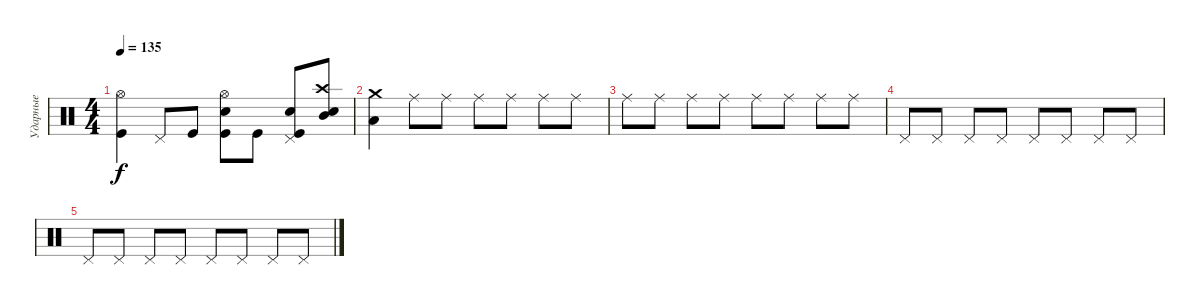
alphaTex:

\track ("Ударные" "Ударные") {instrument percussion}
\staff {score}
\articulation defaults
\ts (4 4)
\tempo 135
\clef neutral
\ks c
("Hi-Hat (open)" "Kick (hit)").4{dy f} "Pedal Hi-Hat (hit)".8 "Kick (hit)".8 ("Hi-Hat (open)" "Electric Snare (hit)" "Kick (hit)").8 "Kick (hit)".8 ("Pedal Hi-Hat (hit)" "Electric Snare (hit)" "Kick (hit)").8 ("Crash high (hit)" "Mid Tom (hit)" "Electric Snare (hit)").8 |
("Crash medium (hit)" "Low Tom (hit)").4 "Ride (middle)".8 "Ride (middle)".8 "Ride (middle)".8 "Ride (middle)".8 "Ride (middle)".8 "Ride (middle)".8 |
"Ride (middle)".8 "Ride (middle)".8 "Ride (middle)".8 "Ride (middle)".8 "Ride (middle)".8 "Ride (middle)".8 "Ride (middle)".8 "Ride (middle)".8 |
"Pedal Hi-Hat (hit)".8 "Pedal Hi-Hat (hit)".8 "Pedal Hi-Hat (hit)".8 "Pedal Hi-Hat (hit)".8 "Pedal Hi-Hat (hit)".8 "Pedal Hi-Hat (hit)".8 "Pedal Hi-Hat (hit)".8 "Pedal Hi-Hat (hit)".8 |
"Pedal Hi-Hat (hit)".8 "Pedal Hi-Hat (hit)".8 "Pedal Hi-Hat (hit)".8 "Pedal Hi-Hat (hit)".8 "Pedal Hi-Hat (hit)".8 "Pedal Hi-Hat (hit)".8 "Pedal Hi-Hat (hit)".8 "Pedal Hi-Hat (hit)".8
